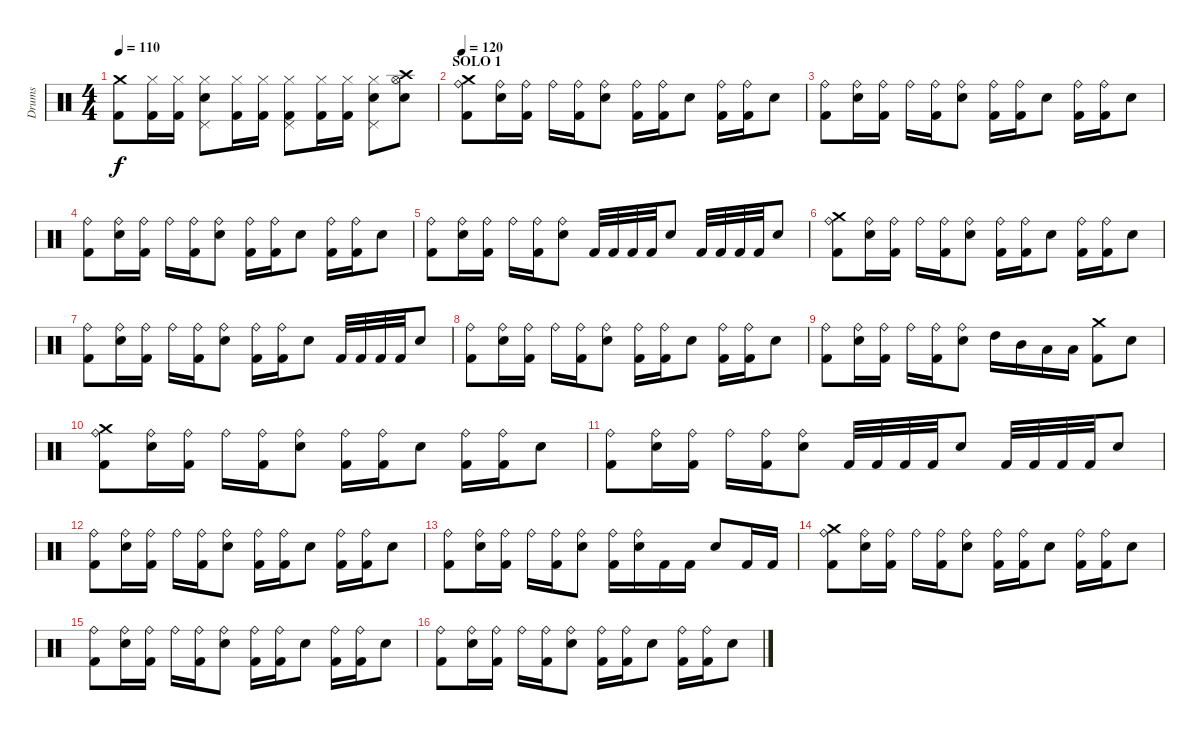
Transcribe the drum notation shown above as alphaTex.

\track ("Drums" "Drums") {instrument percussion}
\staff {score}
\articulation defaults
\ts (4 4)
\tempo 110
\clef neutral
\ks c
("Crash medium (hit)" "Kick (hit) 2").8{dy f} ("Kick (hit) 2" "Hi-Hat (closed)").16 ("Kick (hit) 2" "Hi-Hat (closed)").16 ("Snare (hit) 2" "Pedal Hi-Hat (hit)" "Hi-Hat (closed)").8 ("Kick (hit) 2" "Hi-Hat (closed)").16 ("Kick (hit) 2" "Hi-Hat (closed)").16 ("Kick (hit) 2" "Pedal Hi-Hat (hit)" "Hi-Hat (closed)").8 ("Kick (hit) 2" "Hi-Hat (closed)").16 ("Kick (hit) 2" "Hi-Hat (closed)").16 ("Snare (hit) 2" "Pedal Hi-Hat (hit)" "Hi-Hat (closed)").8 ("Crash high (hit)" "Snare (hit) 2" "Hi-Hat (open)").8 |
\section ("" "SOLO 1")
\tempo 120
("Crash medium (hit)" "Kick (hit) 2" "Ride (bell)").8 ("Snare (hit) 2" "Ride (bell)").16 ("Kick (hit) 2" "Ride (bell)").16 "Ride (bell)".16 ("Kick (hit) 2" "Ride (bell)").16 ("Snare (hit) 2" "Ride (bell)").8 ("Kick (hit) 2" "Ride (bell)").16 ("Kick (hit) 2" "Ride (bell)").16 "Snare (hit) 2".8 ("Kick (hit) 2" "Ride (bell)").16 ("Kick (hit) 2" "Ride (bell)").16 "Snare (hit) 2".8 |
("Kick (hit) 2" "Ride (bell)").8 ("Snare (hit) 2" "Ride (bell)").16 ("Kick (hit) 2" "Ride (bell)").16 "Ride (bell)".16 ("Kick (hit) 2" "Ride (bell)").16 ("Snare (hit) 2" "Ride (bell)").8 ("Kick (hit) 2" "Ride (bell)").16 ("Kick (hit) 2" "Ride (bell)").16 "Snare (hit) 2".8 ("Kick (hit) 2" "Ride (bell)").16 ("Kick (hit) 2" "Ride (bell)").16 "Snare (hit) 2".8 |
("Kick (hit) 2" "Ride (bell)").8 ("Snare (hit) 2" "Ride (bell)").16 ("Kick (hit) 2" "Ride (bell)").16 "Ride (bell)".16 ("Kick (hit) 2" "Ride (bell)").16 ("Snare (hit) 2" "Ride (bell)").8 ("Kick (hit) 2" "Ride (bell)").16 ("Kick (hit) 2" "Ride (bell)").16 "Snare (hit) 2".8 ("Kick (hit) 2" "Ride (bell)").16 ("Kick (hit) 2" "Ride (bell)").16 "Snare (hit) 2".8 |
("Kick (hit) 2" "Ride (bell)").8 ("Snare (hit) 2" "Ride (bell)").16 ("Kick (hit) 2" "Ride (bell)").16 "Ride (bell)".16 ("Kick (hit) 2" "Ride (bell)").16 ("Snare (hit) 2" "Ride (bell)").8 "Kick (hit) 2".32 "Kick (hit) 2".32 "Kick (hit) 2".32 "Kick (hit) 2".32 "Snare (hit) 2".8 "Kick (hit) 2".32 "Kick (hit) 2".32 "Kick (hit) 2".32 "Kick (hit) 2".32 "Snare (hit) 2".8 |
("Crash medium (hit)" "Kick (hit) 2" "Ride (bell)").8 ("Snare (hit) 2" "Ride (bell)").16 ("Kick (hit) 2" "Ride (bell)").16 "Ride (bell)".16 ("Kick (hit) 2" "Ride (bell)").16 ("Snare (hit) 2" "Ride (bell)").8 ("Kick (hit) 2" "Ride (bell)").16 ("Kick (hit) 2" "Ride (bell)").16 "Snare (hit) 2".8 ("Kick (hit) 2" "Ride (bell)").16 ("Kick (hit) 2" "Ride (bell)").16 "Snare (hit) 2".8 |
("Kick (hit) 2" "Ride (bell)").8 ("Snare (hit) 2" "Ride (bell)").16 ("Kick (hit) 2" "Ride (bell)").16 "Ride (bell)".16 ("Kick (hit) 2" "Ride (bell)").16 ("Snare (hit) 2" "Ride (bell)").8 ("Kick (hit) 2" "Ride (bell)").16 ("Kick (hit) 2" "Ride (bell)").16 "Snare (hit) 2".8 "Kick (hit) 2".32 "Kick (hit) 2".32 "Kick (hit) 2".32 "Kick (hit) 2".32 "Snare (hit) 2".8 |
("Kick (hit) 2" "Ride (bell)").8 ("Snare (hit) 2" "Ride (bell)").16 ("Kick (hit) 2" "Ride (bell)").16 "Ride (bell)".16 ("Kick (hit) 2" "Ride (bell)").16 ("Snare (hit) 2" "Ride (bell)").8 ("Kick (hit) 2" "Ride (bell)").16 ("Kick (hit) 2" "Ride (bell)").16 "Snare (hit) 2".8 ("Kick (hit) 2" "Ride (bell)").16 ("Kick (hit) 2" "Ride (bell)").16 "Snare (hit) 2".8 |
("Kick (hit) 2" "Ride (bell)").8 ("Snare (hit) 2" "Ride (bell)").16 ("Kick (hit) 2" "Ride (bell)").16 "Ride (bell)".16 ("Kick (hit) 2" "Ride (bell)").16 ("Snare (hit) 2" "Ride (bell)").8 "High Tom (hit)".16 "Mid Tom (hit)".16 "Low Tom (hit)".16 "Low Tom (hit)".16 ("Crash medium (hit)" "Kick (hit) 2").8 "Snare (hit) 2".8 |
("Crash medium (hit)" "Kick (hit) 2" "Ride (bell)").8 ("Snare (hit) 2" "Ride (bell)").16 ("Kick (hit) 2" "Ride (bell)").16 "Ride (bell)".16 ("Kick (hit) 2" "Ride (bell)").16 ("Snare (hit) 2" "Ride (bell)").8 ("Kick (hit) 2" "Ride (bell)").16 ("Kick (hit) 2" "Ride (bell)").16 "Snare (hit) 2".8 ("Kick (hit) 2" "Ride (bell)").16 ("Kick (hit) 2" "Ride (bell)").16 "Snare (hit) 2".8 |
("Kick (hit) 2" "Ride (bell)").8 ("Snare (hit) 2" "Ride (bell)").16 ("Kick (hit) 2" "Ride (bell)").16 "Ride (bell)".16 ("Kick (hit) 2" "Ride (bell)").16 ("Snare (hit) 2" "Ride (bell)").8 "Kick (hit) 2".32 "Kick (hit) 2".32 "Kick (hit) 2".32 "Kick (hit) 2".32 "Snare (hit) 2".8 "Kick (hit) 2".32 "Kick (hit) 2".32 "Kick (hit) 2".32 "Kick (hit) 2".32 "Snare (hit) 2".8 |
("Kick (hit) 2" "Ride (bell)").8 ("Snare (hit) 2" "Ride (bell)").16 ("Kick (hit) 2" "Ride (bell)").16 "Ride (bell)".16 ("Kick (hit) 2" "Ride (bell)").16 ("Snare (hit) 2" "Ride (bell)").8 ("Kick (hit) 2" "Ride (bell)").16 ("Kick (hit) 2" "Ride (bell)").16 "Snare (hit) 2".8 ("Kick (hit) 2" "Ride (bell)").16 ("Kick (hit) 2" "Ride (bell)").16 "Snare (hit) 2".8 |
("Kick (hit) 2" "Ride (bell)").8 ("Snare (hit) 2" "Ride (bell)").16 ("Kick (hit) 2" "Ride (bell)").16 "Ride (bell)".16 ("Kick (hit) 2" "Ride (bell)").16 ("Snare (hit) 2" "Ride (bell)").8 ("Kick (hit) 2" "Ride (bell)").16 ("Snare (hit) 2" "Ride (bell)").16 "Kick (hit) 2".16 "Kick (hit) 2".16 "Snare (hit) 2".8 "Kick (hit) 2".16 "Kick (hit) 2".16 |
("Crash medium (hit)" "Kick (hit) 2" "Ride (bell)").8 ("Snare (hit) 2" "Ride (bell)").16 ("Kick (hit) 2" "Ride (bell)").16 "Ride (bell)".16 ("Kick (hit) 2" "Ride (bell)").16 ("Snare (hit) 2" "Ride (bell)").8 ("Kick (hit) 2" "Ride (bell)").16 ("Kick (hit) 2" "Ride (bell)").16 "Snare (hit) 2".8 ("Kick (hit) 2" "Ride (bell)").16 ("Kick (hit) 2" "Ride (bell)").16 "Snare (hit) 2".8 |
("Kick (hit) 2" "Ride (bell)").8 ("Snare (hit) 2" "Ride (bell)").16 ("Kick (hit) 2" "Ride (bell)").16 "Ride (bell)".16 ("Kick (hit) 2" "Ride (bell)").16 ("Snare (hit) 2" "Ride (bell)").8 ("Kick (hit) 2" "Ride (bell)").16 ("Kick (hit) 2" "Ride (bell)").16 "Snare (hit) 2".8 ("Kick (hit) 2" "Ride (bell)").16 ("Kick (hit) 2" "Ride (bell)").16 "Snare (hit) 2".8 |
("Kick (hit) 2" "Ride (bell)").8 ("Snare (hit) 2" "Ride (bell)").16 ("Kick (hit) 2" "Ride (bell)").16 "Ride (bell)".16 ("Kick (hit) 2" "Ride (bell)").16 ("Snare (hit) 2" "Ride (bell)").8 ("Kick (hit) 2" "Ride (bell)").16 ("Kick (hit) 2" "Ride (bell)").16 "Snare (hit) 2".8 ("Kick (hit) 2" "Ride (bell)").16 ("Kick (hit) 2" "Ride (bell)").16 "Snare (hit) 2".8
